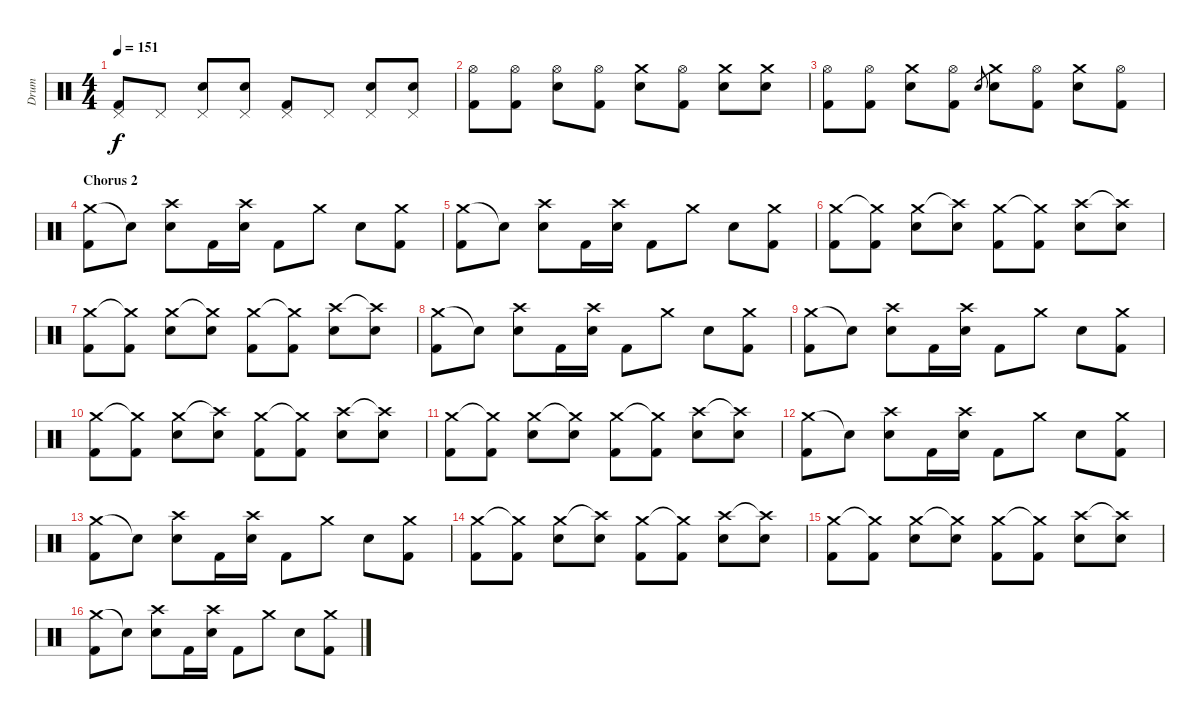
\track ("Drum" "Drum") {instrument percussion}
\staff {score}
\articulation defaults
\ts (4 4)
\tempo 151
\clef neutral
\ks c
("Pedal Hi-Hat (hit)" "Kick (hit) 2").8{dy f} "Pedal Hi-Hat (hit)".8 ("Pedal Hi-Hat (hit)" "Electric Snare (hit)").8 ("Pedal Hi-Hat (hit)" "Electric Snare (hit)").8 ("Pedal Hi-Hat (hit)" "Kick (hit) 2").8 "Pedal Hi-Hat (hit)".8 ("Pedal Hi-Hat (hit)" "Electric Snare (hit)").8 ("Pedal Hi-Hat (hit)" "Electric Snare (hit)").8 |
("Hi-Hat (open)" "Kick (hit) 2").8 ("Hi-Hat (open)" "Kick (hit) 2").8 ("Hi-Hat (open)" "Electric Snare (hit)").8 ("Hi-Hat (open)" "Kick (hit) 2").8 ("Crash medium (hit)" "Electric Snare (hit)").8 ("Hi-Hat (open)" "Kick (hit) 2").8 ("Crash medium (hit)" "Electric Snare (hit)").8 ("Crash medium (hit)" "Electric Snare (hit)").8 |
("Hi-Hat (open)" "Kick (hit) 2").8 ("Hi-Hat (open)" "Kick (hit) 2").8 ("Crash medium (hit)" "Electric Snare (hit)").8 ("Hi-Hat (open)" "Kick (hit) 2").8 "Electric Snare (hit)".8{gr} ("Crash medium (hit)" "Electric Snare (hit)").8 ("Hi-Hat (open)" "Kick (hit) 2").8 ("Crash medium (hit)" "Electric Snare (hit)").8 ("Hi-Hat (open)" "Kick (hit) 2").8 |
\section ("" "Chorus 2")
("Crash medium (hit)" "Kick (hit) 2").8 "Snare (hit)"{t}.8 ("Crash high (hit)" "Electric Snare (hit)").8 "Kick (hit) 2".16 ("Crash high (hit)" "Electric Snare (hit)").16 "Kick (hit) 2".8 "Crash medium (hit)".8 "Electric Snare (hit)".8 ("Crash medium (hit)" "Kick (hit) 2").8 |
("Crash medium (hit)" "Kick (hit) 2").8 "Snare (hit)"{t}.8 ("Crash high (hit)" "Electric Snare (hit)").8 "Kick (hit) 2".16 ("Crash high (hit)" "Electric Snare (hit)").16 "Kick (hit) 2".8 "Crash medium (hit)".8 "Electric Snare (hit)".8 ("Crash medium (hit)" "Kick (hit) 2").8 |
("Crash medium (hit)" "Kick (hit) 2").8 ("Crash medium (hit)"{t} "Kick (hit) 2").8 ("Crash medium (hit)" "Electric Snare (hit)").8 ("Crash high (hit)"{t} "Electric Snare (hit)").8 ("Crash medium (hit)" "Kick (hit) 2").8 ("Crash medium (hit)"{t} "Kick (hit) 2").8 ("Crash high (hit)" "Electric Snare (hit)").8 ("Crash high (hit)"{t} "Electric Snare (hit)").8 |
("Crash medium (hit)" "Kick (hit) 2").8 ("Crash medium (hit)"{t} "Kick (hit) 2").8 ("Crash medium (hit)" "Electric Snare (hit)").8 ("Crash medium (hit)"{t} "Electric Snare (hit)").8 ("Crash medium (hit)" "Kick (hit) 2").8 ("Crash medium (hit)"{t} "Kick (hit) 2").8 ("Crash high (hit)" "Electric Snare (hit)").8 ("Crash high (hit)"{t} "Electric Snare (hit)").8 |
("Crash medium (hit)" "Kick (hit) 2").8 "Snare (hit)"{t}.8 ("Crash high (hit)" "Electric Snare (hit)").8 "Kick (hit) 2".16 ("Crash high (hit)" "Electric Snare (hit)").16 "Kick (hit) 2".8 "Crash medium (hit)".8 "Electric Snare (hit)".8 ("Crash medium (hit)" "Kick (hit) 2").8 |
("Crash medium (hit)" "Kick (hit) 2").8 "Snare (hit)"{t}.8 ("Crash high (hit)" "Electric Snare (hit)").8 "Kick (hit) 2".16 ("Crash high (hit)" "Electric Snare (hit)").16 "Kick (hit) 2".8 "Crash medium (hit)".8 "Electric Snare (hit)".8 ("Crash medium (hit)" "Kick (hit) 2").8 |
("Crash medium (hit)" "Kick (hit) 2").8 ("Crash medium (hit)"{t} "Kick (hit) 2").8 ("Crash medium (hit)" "Electric Snare (hit)").8 ("Crash high (hit)"{t} "Electric Snare (hit)").8 ("Crash medium (hit)" "Kick (hit) 2").8 ("Crash medium (hit)"{t} "Kick (hit) 2").8 ("Crash high (hit)" "Electric Snare (hit)").8 ("Crash high (hit)"{t} "Electric Snare (hit)").8 |
("Crash medium (hit)" "Kick (hit) 2").8 ("Crash medium (hit)"{t} "Kick (hit) 2").8 ("Crash medium (hit)" "Electric Snare (hit)").8 ("Crash medium (hit)"{t} "Electric Snare (hit)").8 ("Crash medium (hit)" "Kick (hit) 2").8 ("Crash medium (hit)"{t} "Kick (hit) 2").8 ("Crash high (hit)" "Electric Snare (hit)").8 ("Crash high (hit)"{t} "Electric Snare (hit)").8 |
("Crash medium (hit)" "Kick (hit) 2").8 "Snare (hit)"{t}.8 ("Crash high (hit)" "Electric Snare (hit)").8 "Kick (hit) 2".16 ("Crash high (hit)" "Electric Snare (hit)").16 "Kick (hit) 2".8 "Crash medium (hit)".8 "Electric Snare (hit)".8 ("Crash medium (hit)" "Kick (hit) 2").8 |
("Crash medium (hit)" "Kick (hit) 2").8 "Snare (hit)"{t}.8 ("Crash high (hit)" "Electric Snare (hit)").8 "Kick (hit) 2".16 ("Crash high (hit)" "Electric Snare (hit)").16 "Kick (hit) 2".8 "Crash medium (hit)".8 "Electric Snare (hit)".8 ("Crash medium (hit)" "Kick (hit) 2").8 |
("Crash medium (hit)" "Kick (hit) 2").8 ("Crash medium (hit)"{t} "Kick (hit) 2").8 ("Crash medium (hit)" "Electric Snare (hit)").8 ("Crash high (hit)"{t} "Electric Snare (hit)").8 ("Crash medium (hit)" "Kick (hit) 2").8 ("Crash medium (hit)"{t} "Kick (hit) 2").8 ("Crash high (hit)" "Electric Snare (hit)").8 ("Crash high (hit)"{t} "Electric Snare (hit)").8 |
("Crash medium (hit)" "Kick (hit) 2").8 ("Crash medium (hit)"{t} "Kick (hit) 2").8 ("Crash medium (hit)" "Electric Snare (hit)").8 ("Crash medium (hit)"{t} "Electric Snare (hit)").8 ("Crash medium (hit)" "Kick (hit) 2").8 ("Crash medium (hit)"{t} "Kick (hit) 2").8 ("Crash high (hit)" "Electric Snare (hit)").8 ("Crash high (hit)"{t} "Electric Snare (hit)").8 |
("Crash medium (hit)" "Kick (hit) 2").8 "Snare (hit)"{t}.8 ("Crash high (hit)" "Electric Snare (hit)").8 "Kick (hit) 2".16 ("Crash high (hit)" "Electric Snare (hit)").16 "Kick (hit) 2".8 "Crash medium (hit)".8 "Electric Snare (hit)".8 ("Crash medium (hit)" "Kick (hit) 2").8
